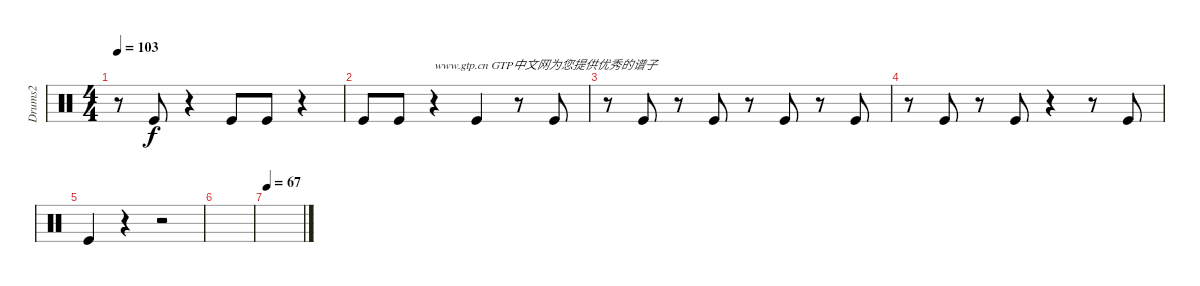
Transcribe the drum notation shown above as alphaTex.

\track ("Drums2" "Drums2") {instrument percussion}
\staff {score}
\articulation defaults
\ts (4 4)
\tempo 103
\clef neutral
\ks c
r.8{dy f} "Kick (hit)".8 r.4 "Kick (hit)".8 "Kick (hit)".8 r.4 |
"Kick (hit)".8 "Kick (hit)".8 r.4{txt "www.gtp.cn GTP中文网为您提供优秀的谱子"} "Kick (hit)".4 r.8 "Kick (hit)".8 |
r.8 "Kick (hit)".8 r.8 "Kick (hit)".8 r.8 "Kick (hit)".8 r.8 "Kick (hit)".8 |
r.8 "Kick (hit)".8 r.8 "Kick (hit)".8 r.4 r.8 "Kick (hit)".8 |
"Kick (hit)".4 r.4 r.2 |
|
\tempo 67
